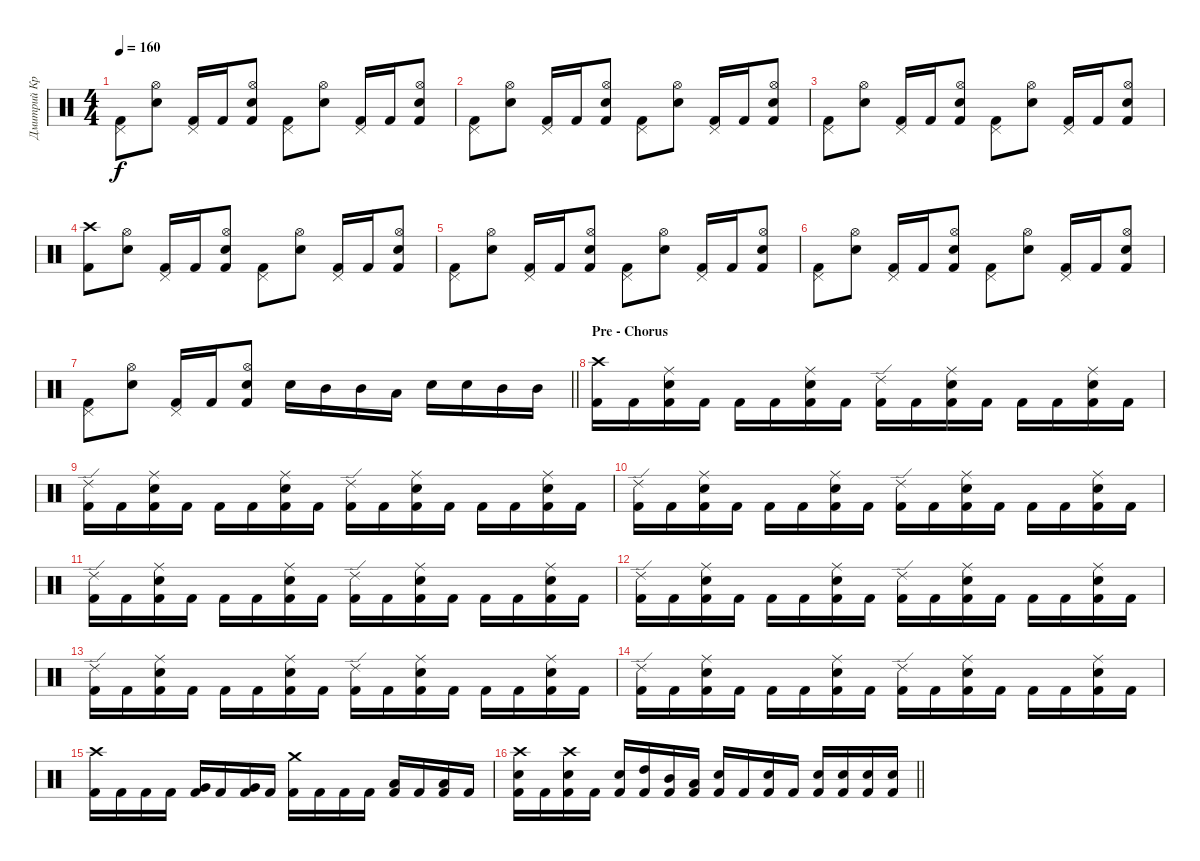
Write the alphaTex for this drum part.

\track ("Дмитрий Кривенков" "Дмитрий Кр") {instrument percussion}
\staff {score}
\articulation defaults
\ts (4 4)
\tempo 160
\clef neutral
\ks c
("Pedal Hi-Hat (hit)" "Kick (hit) 2").8{dy f} ("Hi-Hat (open)" "Electric Snare (hit)").8 ("Pedal Hi-Hat (hit)" "Kick (hit) 2").16 "Kick (hit) 2".16 ("Hi-Hat (open)" "Electric Snare (hit)" "Kick (hit) 2").8 ("Pedal Hi-Hat (hit)" "Kick (hit) 2").8 ("Hi-Hat (open)" "Electric Snare (hit)").8 ("Pedal Hi-Hat (hit)" "Kick (hit) 2").16 "Kick (hit) 2".16 ("Hi-Hat (open)" "Electric Snare (hit)" "Kick (hit) 2").8 |
("Pedal Hi-Hat (hit)" "Kick (hit) 2").8 ("Hi-Hat (open)" "Electric Snare (hit)").8 ("Pedal Hi-Hat (hit)" "Kick (hit) 2").16 "Kick (hit) 2".16 ("Hi-Hat (open)" "Electric Snare (hit)" "Kick (hit) 2").8 ("Pedal Hi-Hat (hit)" "Kick (hit) 2").8 ("Hi-Hat (open)" "Electric Snare (hit)").8 ("Pedal Hi-Hat (hit)" "Kick (hit) 2").16 "Kick (hit) 2".16 ("Hi-Hat (open)" "Electric Snare (hit)" "Kick (hit) 2").8 |
("Pedal Hi-Hat (hit)" "Kick (hit) 2").8 ("Hi-Hat (open)" "Electric Snare (hit)").8 ("Pedal Hi-Hat (hit)" "Kick (hit) 2").16 "Kick (hit) 2".16 ("Hi-Hat (open)" "Electric Snare (hit)" "Kick (hit) 2").8 ("Pedal Hi-Hat (hit)" "Kick (hit) 2").8 ("Hi-Hat (open)" "Electric Snare (hit)").8 ("Pedal Hi-Hat (hit)" "Kick (hit) 2").16 "Kick (hit) 2".16 ("Hi-Hat (open)" "Electric Snare (hit)" "Kick (hit) 2").8 |
("Crash high (hit)" "Kick (hit) 2").8 ("Hi-Hat (open)" "Electric Snare (hit)").8 ("Pedal Hi-Hat (hit)" "Kick (hit) 2").16 "Kick (hit) 2".16 ("Hi-Hat (open)" "Electric Snare (hit)" "Kick (hit) 2").8 ("Pedal Hi-Hat (hit)" "Kick (hit) 2").8 ("Hi-Hat (open)" "Electric Snare (hit)").8 ("Pedal Hi-Hat (hit)" "Kick (hit) 2").16 "Kick (hit) 2".16 ("Hi-Hat (open)" "Electric Snare (hit)" "Kick (hit) 2").8 |
("Pedal Hi-Hat (hit)" "Kick (hit) 2").8 ("Hi-Hat (open)" "Electric Snare (hit)").8 ("Pedal Hi-Hat (hit)" "Kick (hit) 2").16 "Kick (hit) 2".16 ("Hi-Hat (open)" "Electric Snare (hit)" "Kick (hit) 2").8 ("Pedal Hi-Hat (hit)" "Kick (hit) 2").8 ("Hi-Hat (open)" "Electric Snare (hit)").8 ("Pedal Hi-Hat (hit)" "Kick (hit) 2").16 "Kick (hit) 2".16 ("Hi-Hat (open)" "Electric Snare (hit)" "Kick (hit) 2").8 |
("Pedal Hi-Hat (hit)" "Kick (hit) 2").8 ("Hi-Hat (open)" "Electric Snare (hit)").8 ("Pedal Hi-Hat (hit)" "Kick (hit) 2").16 "Kick (hit) 2".16 ("Hi-Hat (open)" "Electric Snare (hit)" "Kick (hit) 2").8 ("Pedal Hi-Hat (hit)" "Kick (hit) 2").8 ("Hi-Hat (open)" "Electric Snare (hit)").8 ("Pedal Hi-Hat (hit)" "Kick (hit) 2").16 "Kick (hit) 2".16 ("Hi-Hat (open)" "Electric Snare (hit)" "Kick (hit) 2").8 |
\barLineRight lightlight
("Pedal Hi-Hat (hit)" "Kick (hit) 2").8 ("Hi-Hat (open)" "Electric Snare (hit)").8 ("Pedal Hi-Hat (hit)" "Kick (hit) 2").16 "Kick (hit) 2".16 ("Hi-Hat (open)" "Electric Snare (hit)" "Kick (hit) 2").8 "Electric Snare (hit)".16 "Mid Tom (hit)".16 "Mid Tom (hit)".16 "Low Tom (hit)".16 "Electric Snare (hit)".16 "Electric Snare (hit)".16 "Mid Tom (hit)".16 "Mid Tom (hit)".16 |
\section ("" "Pre - Chorus")
("Crash high (hit)" "Kick (hit) 2").16 "Kick (hit) 2".16 ("Ride (middle)" "Electric Snare (hit)" "Kick (hit) 2").16 "Kick (hit) 2".16 "Kick (hit) 2".16 "Kick (hit) 2".16 ("Ride (middle)" "Electric Snare (hit)" "Kick (hit) 2").16 "Kick (hit) 2".16 ("Ride (edge) 2" "Kick (hit) 2").16 "Kick (hit) 2".16 ("Ride (middle)" "Electric Snare (hit)" "Kick (hit) 2").16 "Kick (hit) 2".16 "Kick (hit) 2".16 "Kick (hit) 2".16 ("Ride (middle)" "Electric Snare (hit)" "Kick (hit) 2").16 "Kick (hit) 2".16 |
("Ride (edge) 2" "Kick (hit) 2").16 "Kick (hit) 2".16 ("Ride (middle)" "Electric Snare (hit)" "Kick (hit) 2").16 "Kick (hit) 2".16 "Kick (hit) 2".16 "Kick (hit) 2".16 ("Ride (middle)" "Electric Snare (hit)" "Kick (hit) 2").16 "Kick (hit) 2".16 ("Ride (edge) 2" "Kick (hit) 2").16 "Kick (hit) 2".16 ("Ride (middle)" "Electric Snare (hit)" "Kick (hit) 2").16 "Kick (hit) 2".16 "Kick (hit) 2".16 "Kick (hit) 2".16 ("Ride (middle)" "Electric Snare (hit)" "Kick (hit) 2").16 "Kick (hit) 2".16 |
("Ride (edge) 2" "Kick (hit) 2").16 "Kick (hit) 2".16 ("Ride (middle)" "Electric Snare (hit)" "Kick (hit) 2").16 "Kick (hit) 2".16 "Kick (hit) 2".16 "Kick (hit) 2".16 ("Ride (middle)" "Electric Snare (hit)" "Kick (hit) 2").16 "Kick (hit) 2".16 ("Ride (edge) 2" "Kick (hit) 2").16 "Kick (hit) 2".16 ("Ride (middle)" "Electric Snare (hit)" "Kick (hit) 2").16 "Kick (hit) 2".16 "Kick (hit) 2".16 "Kick (hit) 2".16 ("Ride (middle)" "Electric Snare (hit)" "Kick (hit) 2").16 "Kick (hit) 2".16 |
("Ride (edge) 2" "Kick (hit) 2").16 "Kick (hit) 2".16 ("Ride (middle)" "Electric Snare (hit)" "Kick (hit) 2").16 "Kick (hit) 2".16 "Kick (hit) 2".16 "Kick (hit) 2".16 ("Ride (middle)" "Electric Snare (hit)" "Kick (hit) 2").16 "Kick (hit) 2".16 ("Ride (edge) 2" "Kick (hit) 2").16 "Kick (hit) 2".16 ("Ride (middle)" "Electric Snare (hit)" "Kick (hit) 2").16 "Kick (hit) 2".16 "Kick (hit) 2".16 "Kick (hit) 2".16 ("Ride (middle)" "Electric Snare (hit)" "Kick (hit) 2").16 "Kick (hit) 2".16 |
("Ride (edge) 2" "Kick (hit) 2").16 "Kick (hit) 2".16 ("Ride (middle)" "Electric Snare (hit)" "Kick (hit) 2").16 "Kick (hit) 2".16 "Kick (hit) 2".16 "Kick (hit) 2".16 ("Ride (middle)" "Electric Snare (hit)" "Kick (hit) 2").16 "Kick (hit) 2".16 ("Ride (edge) 2" "Kick (hit) 2").16 "Kick (hit) 2".16 ("Ride (middle)" "Electric Snare (hit)" "Kick (hit) 2").16 "Kick (hit) 2".16 "Kick (hit) 2".16 "Kick (hit) 2".16 ("Ride (middle)" "Electric Snare (hit)" "Kick (hit) 2").16 "Kick (hit) 2".16 |
("Ride (edge) 2" "Kick (hit) 2").16 "Kick (hit) 2".16 ("Ride (middle)" "Electric Snare (hit)" "Kick (hit) 2").16 "Kick (hit) 2".16 "Kick (hit) 2".16 "Kick (hit) 2".16 ("Ride (middle)" "Electric Snare (hit)" "Kick (hit) 2").16 "Kick (hit) 2".16 ("Ride (edge) 2" "Kick (hit) 2").16 "Kick (hit) 2".16 ("Ride (middle)" "Electric Snare (hit)" "Kick (hit) 2").16 "Kick (hit) 2".16 "Kick (hit) 2".16 "Kick (hit) 2".16 ("Ride (middle)" "Electric Snare (hit)" "Kick (hit) 2").16 "Kick (hit) 2".16 |
("Ride (edge) 2" "Kick (hit) 2").16 "Kick (hit) 2".16 ("Ride (middle)" "Electric Snare (hit)" "Kick (hit) 2").16 "Kick (hit) 2".16 "Kick (hit) 2".16 "Kick (hit) 2".16 ("Ride (middle)" "Electric Snare (hit)" "Kick (hit) 2").16 "Kick (hit) 2".16 ("Ride (edge) 2" "Kick (hit) 2").16 "Kick (hit) 2".16 ("Ride (middle)" "Electric Snare (hit)" "Kick (hit) 2").16 "Kick (hit) 2".16 "Kick (hit) 2".16 "Kick (hit) 2".16 ("Ride (middle)" "Electric Snare (hit)" "Kick (hit) 2").16 "Kick (hit) 2".16 |
("Crash high (hit)" "Kick (hit) 2").16 "Kick (hit) 2".16 "Kick (hit) 2".16 "Kick (hit) 2".16 ("Very Low Tom (hit)" "Kick (hit) 2").16 "Kick (hit) 2".16 ("Very Low Tom (hit)" "Kick (hit) 2").16 "Kick (hit) 2".16 ("Crash medium (hit)" "Kick (hit) 2").16 "Kick (hit) 2".16 "Kick (hit) 2".16 "Kick (hit) 2".16 ("Low Tom (hit)" "Kick (hit) 2").16 "Kick (hit) 2".16 ("Low Tom (hit)" "Kick (hit) 2").16 "Kick (hit) 2".16 |
\barLineRight lightlight
("Crash high (hit)" "Electric Snare (hit)" "Kick (hit) 2").16 "Kick (hit) 2".16 ("Crash high (hit)" "Electric Snare (hit)" "Kick (hit) 2").16 "Kick (hit) 2".16 ("Electric Snare (hit)" "Kick (hit) 2").16 ("High Tom (hit)" "Kick (hit) 2").16 ("Mid Tom (hit)" "Kick (hit) 2").16 ("Low Tom (hit)" "Kick (hit) 2").16 ("Electric Snare (hit)" "Kick (hit) 2").16 "Kick (hit) 2".16 ("Electric Snare (hit)" "Kick (hit) 2").16 "Kick (hit) 2".16 ("Electric Snare (hit)" "Kick (hit) 2").16 ("Electric Snare (hit)" "Kick (hit) 2").16 ("Electric Snare (hit)" "Kick (hit) 2").16 ("Electric Snare (hit)" "Kick (hit) 2").16
